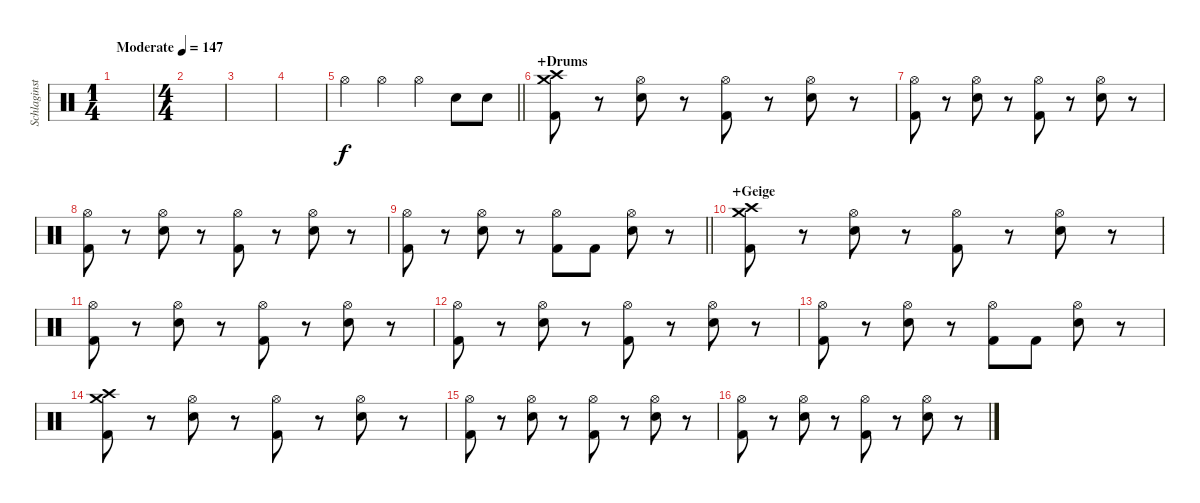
\track ("Schlaginstrumente - Auswahl" "Schlaginst") {instrument percussion}
\staff {score}
\articulation defaults
\ts (1 4)
\tempo (147 "Moderate")
\clef neutral
\ks c
|
\ts (4 4)
|
|
|
\barLineRight lightlight "Hi-Hat (open)".4 "Hi-Hat (open)".4 "Hi-Hat (open)".4 "Snare (hit) 2".8 "Snare (hit) 2".8
|
\section ("" "+Drums")
("Crash medium (hit)" "Crash high (hit)" "Kick (hit) 2").8 r.8 ("Hi-Hat (open)" "Snare (hit) 2").8 r.8 ("Hi-Hat (open)" "Kick (hit) 2").8 r.8 ("Hi-Hat (open)" "Snare (hit) 2").8 r.8 |
("Hi-Hat (open)" "Kick (hit) 2").8 r.8 ("Hi-Hat (open)" "Snare (hit) 2").8 r.8 ("Hi-Hat (open)" "Kick (hit) 2").8 r.8 ("Hi-Hat (open)" "Snare (hit) 2").8 r.8 |
("Hi-Hat (open)" "Kick (hit) 2").8 r.8 ("Hi-Hat (open)" "Snare (hit) 2").8 r.8 ("Hi-Hat (open)" "Kick (hit) 2").8 r.8 ("Hi-Hat (open)" "Snare (hit) 2").8 r.8 |
\barLineRight lightlight
("Hi-Hat (open)" "Kick (hit) 2").8 r.8 ("Hi-Hat (open)" "Snare (hit) 2").8 r.8 ("Hi-Hat (open)" "Kick (hit) 2").8 "Kick (hit) 2".8 ("Hi-Hat (open)" "Snare (hit) 2").8 r.8 |
\section ("" "+Geige")
("Crash medium (hit)" "Crash high (hit)" "Kick (hit) 2").8 r.8 ("Hi-Hat (open)" "Snare (hit) 2").8 r.8 ("Hi-Hat (open)" "Kick (hit) 2").8 r.8 ("Hi-Hat (open)" "Snare (hit) 2").8 r.8 |
("Hi-Hat (open)" "Kick (hit) 2").8 r.8 ("Hi-Hat (open)" "Snare (hit) 2").8 r.8 ("Hi-Hat (open)" "Kick (hit) 2").8 r.8 ("Hi-Hat (open)" "Snare (hit) 2").8 r.8 |
("Hi-Hat (open)" "Kick (hit) 2").8 r.8 ("Hi-Hat (open)" "Snare (hit) 2").8 r.8 ("Hi-Hat (open)" "Kick (hit) 2").8 r.8 ("Hi-Hat (open)" "Snare (hit) 2").8 r.8 |
("Hi-Hat (open)" "Kick (hit) 2").8 r.8 ("Hi-Hat (open)" "Snare (hit) 2").8 r.8 ("Hi-Hat (open)" "Kick (hit) 2").8 "Kick (hit) 2".8 ("Hi-Hat (open)" "Snare (hit) 2").8 r.8 |
("Crash medium (hit)" "Crash high (hit)" "Kick (hit) 2").8 r.8 ("Hi-Hat (open)" "Snare (hit) 2").8 r.8 ("Hi-Hat (open)" "Kick (hit) 2").8 r.8 ("Hi-Hat (open)" "Snare (hit) 2").8 r.8 |
("Hi-Hat (open)" "Kick (hit) 2").8 r.8 ("Hi-Hat (open)" "Snare (hit) 2").8 r.8 ("Hi-Hat (open)" "Kick (hit) 2").8 r.8 ("Hi-Hat (open)" "Snare (hit) 2").8 r.8 |
("Hi-Hat (open)" "Kick (hit) 2").8 r.8 ("Hi-Hat (open)" "Snare (hit) 2").8 r.8 ("Hi-Hat (open)" "Kick (hit) 2").8 r.8 ("Hi-Hat (open)" "Snare (hit) 2").8 r.8
